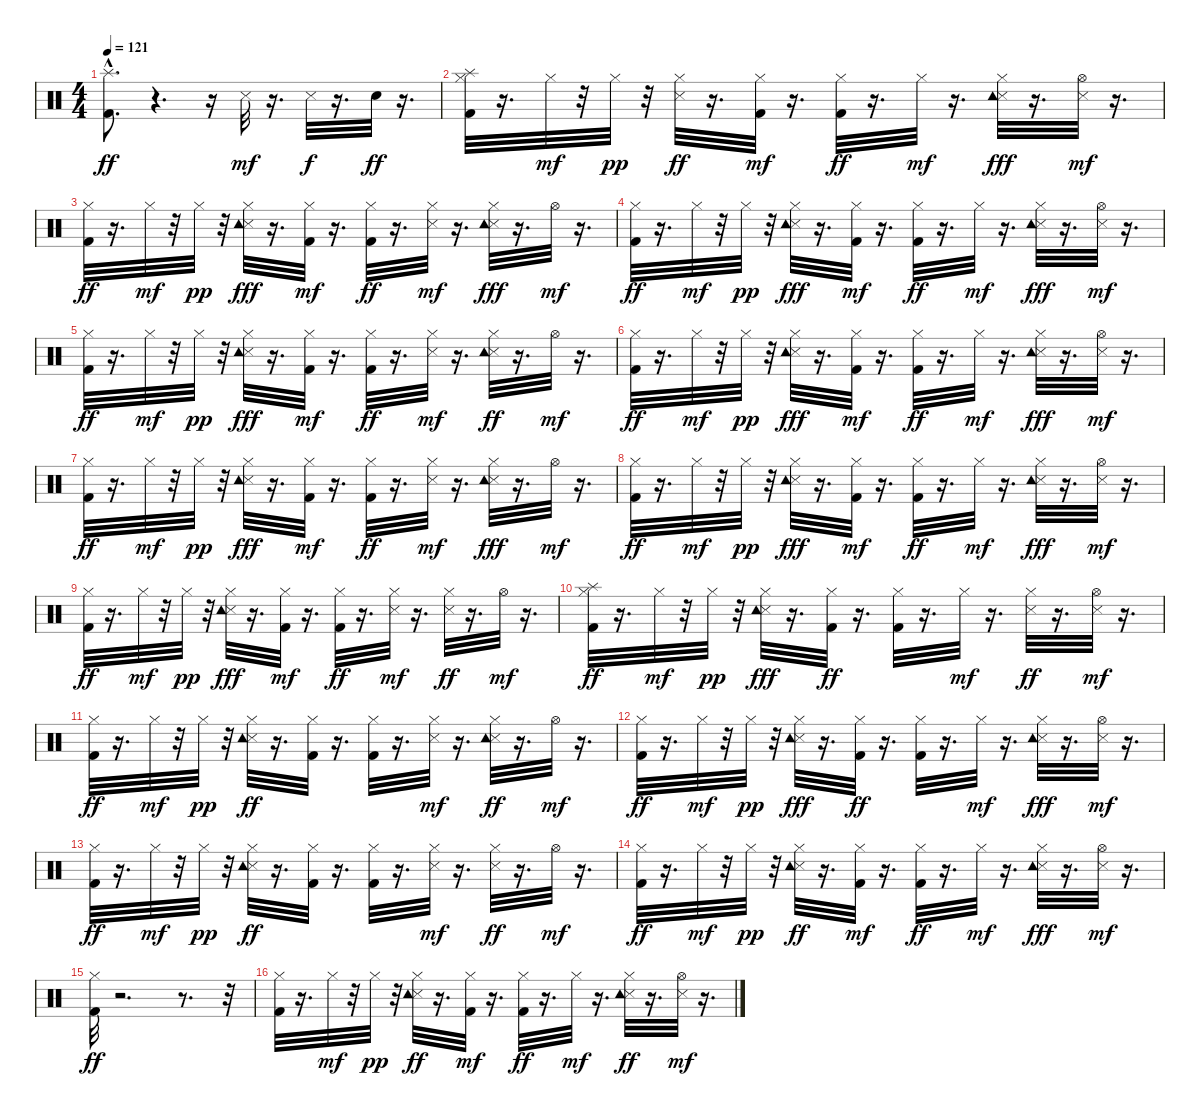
\track "" {instrument percussion}
\staff {score}
\articulation defaults
\ts (4 4)
\tempo 121
\clef neutral
\ks c
("Kick (hit) 2"{hac} "Splash (hit)").8{d dy ff} r.4{d} r.16 "Snare (side stick) 3".32{dy mf} r.16{d} "Snare (side stick) 3".32{dy f} r.16{d} "Electric Snare (hit)".32{dy ff} r.16{d} |
("Kick (hit) 2" "Hi-Hat (closed)" "Splash (hit)").32 r.16{d} "Hi-Hat (closed)".32{dy mf} r.32 "Hi-Hat (closed)".32{dy pp} r.32 ("Snare (side stick) 3" "Hi-Hat (closed)").32{dy ff} r.16{d} ("Kick (hit) 2" "Hi-Hat (closed)").32{dy mf} r.16{d} ("Kick (hit) 2" "Hi-Hat (closed)").32{dy ff} r.16{d} "Hi-Hat (closed)".32{dy mf} r.16{d} ("Snare (side stick) 3" "Hi-Hat (closed)" "Tambourine (hit)").32{dy fff} r.16{d} ("Snare (side stick) 3" "Hi-Hat (open)").32{dy mf} r.16{d} |
("Kick (hit) 2" "Hi-Hat (closed)").32{dy ff} r.16{d} "Hi-Hat (closed)".32{dy mf} r.32 "Hi-Hat (closed)".32{dy pp} r.32 ("Snare (side stick) 3" "Hi-Hat (closed)" "Tambourine (hit)").32{dy fff} r.16{d} ("Kick (hit) 2" "Hi-Hat (closed)").32{dy mf} r.16{d} ("Kick (hit) 2" "Hi-Hat (closed)").32{dy ff} r.16{d} ("Snare (side stick) 3" "Hi-Hat (closed)").32{dy mf} r.16{d} ("Snare (side stick) 3" "Hi-Hat (closed)" "Tambourine (hit)").32{dy fff} r.16{d} "Hi-Hat (open)".32{dy mf} r.16{d} |
("Kick (hit) 2" "Hi-Hat (closed)").32{dy ff} r.16{d} "Hi-Hat (closed)".32{dy mf} r.32 "Hi-Hat (closed)".32{dy pp} r.32 ("Snare (side stick) 3" "Hi-Hat (closed)" "Tambourine (hit)").32{dy fff} r.16{d} ("Kick (hit) 2" "Hi-Hat (closed)").32{dy mf} r.16{d} ("Kick (hit) 2" "Hi-Hat (closed)").32{dy ff} r.16{d} "Hi-Hat (closed)".32{dy mf} r.16{d} ("Snare (side stick) 3" "Hi-Hat (closed)" "Tambourine (hit)").32{dy fff} r.16{d} ("Snare (side stick) 3" "Hi-Hat (open)").32{dy mf} r.16{d} |
("Hi-Hat (closed)" "Kick (hit) 2").32{dy ff} r.16{d} "Hi-Hat (closed)".32{dy mf} r.32 "Hi-Hat (closed)".32{dy pp} r.32 ("Snare (side stick) 3" "Hi-Hat (closed)" "Tambourine (hit)").32{dy fff} r.16{d} ("Kick (hit) 2" "Hi-Hat (closed)").32{dy mf} r.16{d} ("Kick (hit) 2" "Hi-Hat (closed)").32{dy ff} r.16{d} ("Snare (side stick) 3" "Hi-Hat (closed)").32{dy mf} r.16{d} ("Snare (side stick) 3" "Hi-Hat (closed)" "Tambourine (hit)").32{dy ff} r.16{d} "Hi-Hat (open)".32{dy mf} r.16{d} |
("Hi-Hat (closed)" "Kick (hit) 2").32{dy ff} r.16{d} "Hi-Hat (closed)".32{dy mf} r.32 "Hi-Hat (closed)".32{dy pp} r.32 ("Snare (side stick) 3" "Hi-Hat (closed)" "Tambourine (hit)").32{dy fff} r.16{d} ("Kick (hit) 2" "Hi-Hat (closed)").32{dy mf} r.16{d} ("Kick (hit) 2" "Hi-Hat (closed)").32{dy ff} r.16{d} "Hi-Hat (closed)".32{dy mf} r.16{d} ("Snare (side stick) 3" "Hi-Hat (closed)" "Tambourine (hit)").32{dy fff} r.16{d} ("Snare (side stick) 3" "Hi-Hat (open)").32{dy mf} r.16{d} |
("Kick (hit) 2" "Hi-Hat (closed)").32{dy ff} r.16{d} "Hi-Hat (closed)".32{dy mf} r.32 "Hi-Hat (closed)".32{dy pp} r.32 ("Snare (side stick) 3" "Hi-Hat (closed)" "Tambourine (hit)").32{dy fff} r.16{d} ("Kick (hit) 2" "Hi-Hat (closed)").32{dy mf} r.16{d} ("Kick (hit) 2" "Hi-Hat (closed)").32{dy ff} r.16{d} ("Snare (side stick) 3" "Hi-Hat (closed)").32{dy mf} r.16{d} ("Snare (side stick) 3" "Hi-Hat (closed)" "Tambourine (hit)").32{dy fff} r.16{d} "Hi-Hat (open)".32{dy mf} r.16{d} |
("Kick (hit) 2" "Hi-Hat (closed)").32{dy ff} r.16{d} "Hi-Hat (closed)".32{dy mf} r.32 "Hi-Hat (closed)".32{dy pp} r.32 ("Snare (side stick) 3" "Hi-Hat (closed)" "Tambourine (hit)").32{dy fff} r.16{d} ("Kick (hit) 2" "Hi-Hat (closed)").32{dy mf} r.16{d} ("Kick (hit) 2" "Hi-Hat (closed)").32{dy ff} r.16{d} "Hi-Hat (closed)".32{dy mf} r.16{d} ("Snare (side stick) 3" "Hi-Hat (closed)" "Tambourine (hit)").32{dy fff} r.16{d} ("Snare (side stick) 3" "Hi-Hat (open)").32{dy mf} r.16{d} |
("Kick (hit) 2" "Hi-Hat (closed)").32{dy ff} r.16{d} "Hi-Hat (closed)".32{dy mf} r.32 "Hi-Hat (closed)".32{dy pp} r.32 ("Snare (side stick) 3" "Hi-Hat (closed)" "Tambourine (hit)").32{dy fff} r.16{d} ("Kick (hit) 2" "Hi-Hat (closed)").32{dy mf} r.16{d} ("Kick (hit) 2" "Hi-Hat (closed)").32{dy ff} r.16{d} ("Snare (side stick) 3" "Hi-Hat (closed)").32{dy mf} r.16{d} ("Snare (side stick) 3" "Hi-Hat (closed)").32{dy ff} r.16{d} "Hi-Hat (open)".32{dy mf} r.16{d} |
("Kick (hit) 2" "Hi-Hat (closed)" "Splash (hit)").32{dy ff} r.16{d} "Hi-Hat (closed)".32{dy mf} r.32 "Hi-Hat (closed)".32{dy pp} r.32 ("Snare (side stick) 3" "Hi-Hat (closed)" "Tambourine (hit)").32{dy fff} r.16{d} ("Hi-Hat (closed)" "Kick (hit) 2").32{dy ff} r.16{d} ("Kick (hit) 2" "Hi-Hat (closed)").32 r.16{d} "Hi-Hat (closed)".32{dy mf} r.16{d} ("Snare (side stick) 3" "Hi-Hat (closed)").32{dy ff} r.16{d} ("Snare (side stick) 3" "Hi-Hat (open)").32{dy mf} r.16{d} |
("Kick (hit) 2" "Hi-Hat (closed)").32{dy ff} r.16{d} "Hi-Hat (closed)".32{dy mf} r.32 "Hi-Hat (closed)".32{dy pp} r.32 ("Snare (side stick) 3" "Hi-Hat (closed)" "Tambourine (hit)").32{dy ff} r.16{d} ("Hi-Hat (closed)" "Kick (hit) 2").32 r.16{d} ("Kick (hit) 2" "Hi-Hat (closed)").32 r.16{d} ("Snare (side stick) 3" "Hi-Hat (closed)").32{dy mf} r.16{d} ("Snare (side stick) 3" "Hi-Hat (closed)" "Tambourine (hit)").32{dy ff} r.16{d} "Hi-Hat (open)".32{dy mf} r.16{d} |
("Kick (hit) 2" "Hi-Hat (closed)").32{dy ff} r.16{d} "Hi-Hat (closed)".32{dy mf} r.32 "Hi-Hat (closed)".32{dy pp} r.32 ("Snare (side stick) 3" "Hi-Hat (closed)" "Tambourine (hit)").32{dy fff} r.16{d} ("Hi-Hat (closed)" "Kick (hit) 2").32{dy ff} r.16{d} ("Kick (hit) 2" "Hi-Hat (closed)").32 r.16{d} "Hi-Hat (closed)".32{dy mf} r.16{d} ("Snare (side stick) 3" "Hi-Hat (closed)" "Tambourine (hit)").32{dy fff} r.16{d} ("Snare (side stick) 3" "Hi-Hat (open)").32{dy mf} r.16{d} |
("Kick (hit) 2" "Hi-Hat (closed)").32{dy ff} r.16{d} "Hi-Hat (closed)".32{dy mf} r.32 "Hi-Hat (closed)".32{dy pp} r.32 ("Snare (side stick) 3" "Hi-Hat (closed)" "Tambourine (hit)").32{dy ff} r.16{d} ("Hi-Hat (closed)" "Kick (hit) 2").32 r.16{d} ("Kick (hit) 2" "Hi-Hat (closed)").32 r.16{d} ("Snare (side stick) 3" "Hi-Hat (closed)").32{dy mf} r.16{d} ("Snare (side stick) 3" "Hi-Hat (closed)").32{dy ff} r.16{d} "Hi-Hat (open)".32{dy mf} r.16{d} |
("Hi-Hat (closed)" "Kick (hit) 2").32{dy ff} r.16{d} "Hi-Hat (closed)".32{dy mf} r.32 "Hi-Hat (closed)".32{dy pp} r.32 ("Snare (side stick) 3" "Hi-Hat (closed)" "Tambourine (hit)").32{dy ff} r.16{d} ("Kick (hit) 2" "Hi-Hat (closed)").32{dy mf} r.16{d} ("Hi-Hat (closed)" "Kick (hit) 2").32{dy ff} r.16{d} "Hi-Hat (closed)".32{dy mf} r.16{d} ("Snare (side stick) 3" "Hi-Hat (closed)" "Tambourine (hit)").32{dy fff} r.16{d} ("Snare (side stick) 3" "Hi-Hat (open)").32{dy mf} r.16{d} |
("Kick (hit) 2" "Hi-Hat (closed)").32{dy ff} r.2{d} r.8{d} r.32 |
("Kick (hit) 2" "Hi-Hat (closed)").32 r.16{d} "Hi-Hat (closed)".32{dy mf} r.32 "Hi-Hat (closed)".32{dy pp} r.32 ("Snare (side stick) 3" "Hi-Hat (closed)" "Tambourine (hit)").32{dy ff} r.16{d} ("Kick (hit) 2" "Hi-Hat (closed)").32{dy mf} r.16{d} ("Kick (hit) 2" "Hi-Hat (closed)").32{dy ff} r.16{d} "Hi-Hat (closed)".32{dy mf} r.16{d} ("Snare (side stick) 3" "Hi-Hat (closed)" "Tambourine (hit)").32{dy ff} r.16{d} ("Snare (side stick) 3" "Hi-Hat (open)").32{dy mf} r.16{d}
